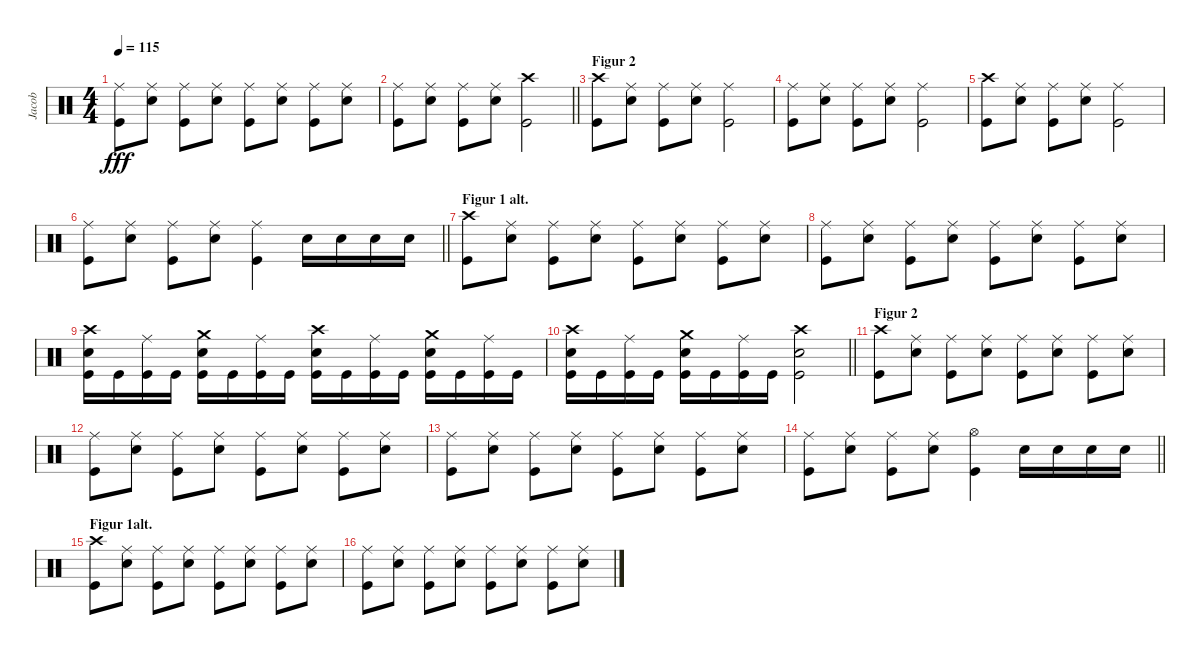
\track ("Jacob" "Jacob") {instrument percussion}
\staff {score}
\articulation defaults
\ts (4 4)
\tempo 115
\clef neutral
\ks c
("Kick (hit)" "Ride (middle)").8{dy fff} ("Electric Snare (hit)" "Ride (middle)").8 ("Kick (hit)" "Ride (middle)").8 ("Electric Snare (hit)" "Ride (middle)").8 ("Kick (hit)" "Ride (middle)").8 ("Electric Snare (hit)" "Ride (middle)").8 ("Kick (hit)" "Ride (middle)").8 ("Electric Snare (hit)" "Ride (middle)").8 |
\barLineRight lightlight
("Kick (hit)" "Ride (middle)").8 ("Electric Snare (hit)" "Ride (middle)").8 ("Kick (hit)" "Ride (middle)").8 ("Electric Snare (hit)" "Ride (middle)").8 ("Kick (hit)" "Crash high (hit)").2 |
\section ("" "Figur 2")
("Kick (hit)" "Crash high (hit)").8 ("Electric Snare (hit)" "Ride (middle)").8 ("Kick (hit)" "Ride (middle)").8 ("Electric Snare (hit)" "Ride (middle)").8 ("Kick (hit)" "Ride (middle)").2 |
("Kick (hit)" "Ride (middle)").8 ("Electric Snare (hit)" "Ride (middle)").8 ("Kick (hit)" "Ride (middle)").8 ("Electric Snare (hit)" "Ride (middle)").8 ("Kick (hit)" "Ride (middle)").2 |
("Kick (hit)" "Crash high (hit)").8 ("Electric Snare (hit)" "Ride (middle)").8 ("Kick (hit)" "Ride (middle)").8 ("Electric Snare (hit)" "Ride (middle)").8 ("Kick (hit)" "Ride (middle)").2 |
\barLineRight lightlight
("Kick (hit)" "Ride (middle)").8 ("Electric Snare (hit)" "Ride (middle)").8 ("Kick (hit)" "Ride (middle)").8 ("Electric Snare (hit)" "Ride (middle)").8 ("Kick (hit)" "Ride (middle)").4 "Electric Snare (hit)".16 "Electric Snare (hit)".16 "Electric Snare (hit)".16 "Electric Snare (hit)".16 |
\section ("" "Figur 1 alt.")
("Kick (hit)" "Crash high (hit)").8 ("Electric Snare (hit)" "Ride (middle)").8 ("Kick (hit)" "Ride (middle)").8 ("Electric Snare (hit)" "Ride (middle)").8 ("Kick (hit)" "Ride (middle)").8 ("Electric Snare (hit)" "Ride (middle)").8 ("Kick (hit)" "Ride (middle)").8 ("Electric Snare (hit)" "Ride (middle)").8 |
("Kick (hit)" "Ride (middle)").8 ("Electric Snare (hit)" "Ride (middle)").8 ("Kick (hit)" "Ride (middle)").8 ("Electric Snare (hit)" "Ride (middle)").8 ("Kick (hit)" "Ride (middle)").8 ("Electric Snare (hit)" "Ride (middle)").8 ("Kick (hit)" "Ride (middle)").8 ("Electric Snare (hit)" "Ride (middle)").8 |
("Kick (hit)" "Electric Snare (hit)" "Crash high (hit)").16 "Kick (hit)".16 ("Kick (hit)" "Ride (middle)").16 "Kick (hit)".16 ("Kick (hit)" "Electric Snare (hit)" "Crash medium (hit)").16 "Kick (hit)".16 ("Kick (hit)" "Ride (middle)").16 "Kick (hit)".16 ("Kick (hit)" "Electric Snare (hit)" "Crash high (hit)").16 "Kick (hit)".16 ("Kick (hit)" "Ride (middle)").16 "Kick (hit)".16 ("Kick (hit)" "Electric Snare (hit)" "Crash medium (hit)").16 "Kick (hit)".16 ("Kick (hit)" "Ride (middle)").16 "Kick (hit)".16 |
\barLineRight lightlight
("Kick (hit)" "Electric Snare (hit)" "Crash high (hit)").16 "Kick (hit)".16 ("Kick (hit)" "Ride (middle)").16 "Kick (hit)".16 ("Kick (hit)" "Electric Snare (hit)" "Crash medium (hit)").16 "Kick (hit)".16 ("Kick (hit)" "Ride (middle)").16 "Kick (hit)".16 ("Kick (hit)" "Electric Snare (hit)" "Crash high (hit)").2 |
\section ("" "Figur 2")
("Kick (hit)" "Crash high (hit)").8 ("Electric Snare (hit)" "Ride (middle)").8 ("Kick (hit)" "Ride (middle)").8 ("Electric Snare (hit)" "Ride (middle)").8 ("Kick (hit)" "Ride (middle)").8 ("Electric Snare (hit)" "Ride (middle)").8 ("Kick (hit)" "Ride (middle)").8 ("Electric Snare (hit)" "Ride (middle)").8 |
("Kick (hit)" "Ride (middle)").8 ("Electric Snare (hit)" "Ride (middle)").8 ("Kick (hit)" "Ride (middle)").8 ("Electric Snare (hit)" "Ride (middle)").8 ("Kick (hit)" "Ride (middle)").8 ("Electric Snare (hit)" "Ride (middle)").8 ("Kick (hit)" "Ride (middle)").8 ("Electric Snare (hit)" "Ride (middle)").8 |
("Kick (hit)" "Ride (middle)").8 ("Electric Snare (hit)" "Ride (middle)").8 ("Kick (hit)" "Ride (middle)").8 ("Electric Snare (hit)" "Ride (middle)").8 ("Kick (hit)" "Ride (middle)").8 ("Electric Snare (hit)" "Ride (middle)").8 ("Kick (hit)" "Ride (middle)").8 ("Electric Snare (hit)" "Ride (middle)").8 |
\barLineRight lightlight
("Kick (hit)" "Ride (middle)").8 ("Electric Snare (hit)" "Ride (middle)").8 ("Kick (hit)" "Ride (middle)").8 ("Electric Snare (hit)" "Ride (middle)").8 ("Kick (hit)" "Hi-Hat (open)").4 "Electric Snare (hit)".16 "Electric Snare (hit)".16 "Electric Snare (hit)".16 "Electric Snare (hit)".16 |
\section ("" "Figur 1alt.")
("Kick (hit)" "Crash high (hit)").8 ("Electric Snare (hit)" "Ride (middle)").8 ("Kick (hit)" "Ride (middle)").8 ("Electric Snare (hit)" "Ride (middle)").8 ("Kick (hit)" "Ride (middle)").8 ("Electric Snare (hit)" "Ride (middle)").8 ("Kick (hit)" "Ride (middle)").8 ("Electric Snare (hit)" "Ride (middle)").8 |
("Kick (hit)" "Ride (middle)").8 ("Electric Snare (hit)" "Ride (middle)").8 ("Kick (hit)" "Ride (middle)").8 ("Electric Snare (hit)" "Ride (middle)").8 ("Kick (hit)" "Ride (middle)").8 ("Electric Snare (hit)" "Ride (middle)").8 ("Kick (hit)" "Ride (middle)").8 ("Electric Snare (hit)" "Ride (middle)").8
